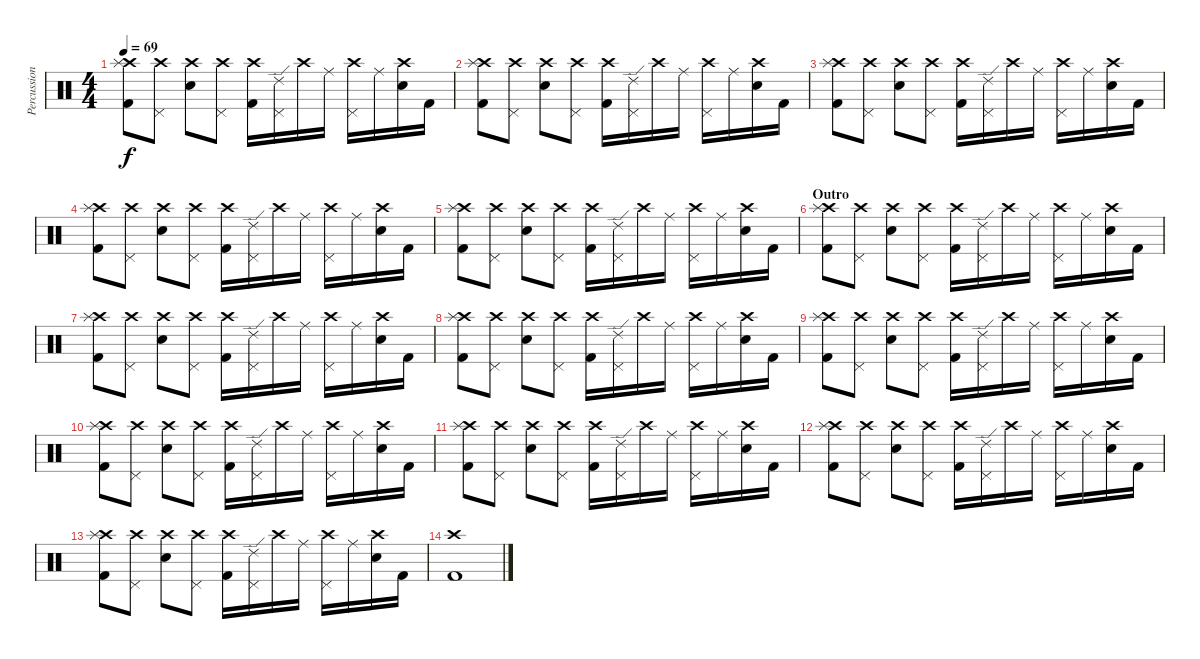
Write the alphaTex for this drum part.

\track ("Percussion" "Percussion") {instrument percussion}
\staff {score}
\articulation defaults
\ts (4 4)
\tempo 69
\clef neutral
\ks c
("Crash high (hit)" "Splash (hit)" "Kick (hit) 2").8{dy f} ("Crash high (hit)" "Pedal Hi-Hat (hit)").8 ("Crash high (hit)" "Electric Snare (hit)").8 ("Crash high (hit)" "Pedal Hi-Hat (hit)").8 ("Crash high (hit)" "Kick (hit) 2").16 ("Ride (edge) 2" "Pedal Hi-Hat (hit)").16 "Crash high (hit)".16 "Ride (middle)".16 ("Crash high (hit)" "Pedal Hi-Hat (hit)").16 "Ride (middle)".16 ("Crash high (hit)" "Electric Snare (hit)").16 "Kick (hit) 2".16 |
("Crash high (hit)" "Splash (hit)" "Kick (hit) 2").8 ("Crash high (hit)" "Pedal Hi-Hat (hit)").8 ("Crash high (hit)" "Electric Snare (hit)").8 ("Crash high (hit)" "Pedal Hi-Hat (hit)").8 ("Crash high (hit)" "Kick (hit) 2").16 ("Ride (edge) 2" "Pedal Hi-Hat (hit)").16 "Crash high (hit)".16 "Ride (middle)".16 ("Crash high (hit)" "Pedal Hi-Hat (hit)").16 "Ride (middle)".16 ("Crash high (hit)" "Electric Snare (hit)").16 "Kick (hit) 2".16 |
("Crash high (hit)" "Splash (hit)" "Kick (hit) 2").8 ("Crash high (hit)" "Pedal Hi-Hat (hit)").8 ("Crash high (hit)" "Electric Snare (hit)").8 ("Crash high (hit)" "Pedal Hi-Hat (hit)").8 ("Crash high (hit)" "Kick (hit) 2").16 ("Ride (edge) 2" "Pedal Hi-Hat (hit)").16 "Crash high (hit)".16 "Ride (middle)".16 ("Crash high (hit)" "Pedal Hi-Hat (hit)").16 "Ride (middle)".16 ("Crash high (hit)" "Electric Snare (hit)").16 "Kick (hit) 2".16 |
("Crash high (hit)" "Splash (hit)" "Kick (hit) 2").8 ("Crash high (hit)" "Pedal Hi-Hat (hit)").8 ("Crash high (hit)" "Electric Snare (hit)").8 ("Crash high (hit)" "Pedal Hi-Hat (hit)").8 ("Crash high (hit)" "Kick (hit) 2").16 ("Ride (edge) 2" "Pedal Hi-Hat (hit)").16 "Crash high (hit)".16 "Ride (middle)".16 ("Crash high (hit)" "Pedal Hi-Hat (hit)").16 "Ride (middle)".16 ("Crash high (hit)" "Electric Snare (hit)").16 "Kick (hit) 2".16 |
("Crash high (hit)" "Splash (hit)" "Kick (hit) 2").8 ("Crash high (hit)" "Pedal Hi-Hat (hit)").8 ("Crash high (hit)" "Electric Snare (hit)").8 ("Crash high (hit)" "Pedal Hi-Hat (hit)").8 ("Crash high (hit)" "Kick (hit) 2").16 ("Ride (edge) 2" "Pedal Hi-Hat (hit)").16 "Crash high (hit)".16 "Ride (middle)".16 ("Crash high (hit)" "Pedal Hi-Hat (hit)").16 "Ride (middle)".16 ("Crash high (hit)" "Electric Snare (hit)").16 "Kick (hit) 2".16 |
\section ("" "Outro")
("Crash high (hit)" "Splash (hit)" "Kick (hit) 2").8 ("Crash high (hit)" "Pedal Hi-Hat (hit)").8 ("Crash high (hit)" "Electric Snare (hit)").8 ("Crash high (hit)" "Pedal Hi-Hat (hit)").8 ("Crash high (hit)" "Kick (hit) 2").16 ("Ride (edge) 2" "Pedal Hi-Hat (hit)").16 "Crash high (hit)".16 "Ride (middle)".16 ("Crash high (hit)" "Pedal Hi-Hat (hit)").16 "Ride (middle)".16 ("Crash high (hit)" "Electric Snare (hit)").16 "Kick (hit) 2".16 |
("Crash high (hit)" "Splash (hit)" "Kick (hit) 2").8 ("Crash high (hit)" "Pedal Hi-Hat (hit)").8 ("Crash high (hit)" "Electric Snare (hit)").8 ("Crash high (hit)" "Pedal Hi-Hat (hit)").8 ("Crash high (hit)" "Kick (hit) 2").16 ("Ride (edge) 2" "Pedal Hi-Hat (hit)").16 "Crash high (hit)".16 "Ride (middle)".16 ("Crash high (hit)" "Pedal Hi-Hat (hit)").16 "Ride (middle)".16 ("Crash high (hit)" "Electric Snare (hit)").16 "Kick (hit) 2".16 |
("Crash high (hit)" "Splash (hit)" "Kick (hit) 2").8 ("Crash high (hit)" "Pedal Hi-Hat (hit)").8 ("Crash high (hit)" "Electric Snare (hit)").8 ("Crash high (hit)" "Pedal Hi-Hat (hit)").8 ("Crash high (hit)" "Kick (hit) 2").16 ("Ride (edge) 2" "Pedal Hi-Hat (hit)").16 "Crash high (hit)".16 "Ride (middle)".16 ("Crash high (hit)" "Pedal Hi-Hat (hit)").16 "Ride (middle)".16 ("Crash high (hit)" "Electric Snare (hit)").16 "Kick (hit) 2".16 |
("Crash high (hit)" "Splash (hit)" "Kick (hit) 2").8 ("Crash high (hit)" "Pedal Hi-Hat (hit)").8 ("Crash high (hit)" "Electric Snare (hit)").8 ("Crash high (hit)" "Pedal Hi-Hat (hit)").8 ("Crash high (hit)" "Kick (hit) 2").16 ("Ride (edge) 2" "Pedal Hi-Hat (hit)").16 "Crash high (hit)".16 "Ride (middle)".16 ("Crash high (hit)" "Pedal Hi-Hat (hit)").16 "Ride (middle)".16 ("Crash high (hit)" "Electric Snare (hit)").16 "Kick (hit) 2".16 |
("Crash high (hit)" "Splash (hit)" "Kick (hit) 2").8 ("Crash high (hit)" "Pedal Hi-Hat (hit)").8 ("Crash high (hit)" "Electric Snare (hit)").8 ("Crash high (hit)" "Pedal Hi-Hat (hit)").8 ("Crash high (hit)" "Kick (hit) 2").16 ("Ride (edge) 2" "Pedal Hi-Hat (hit)").16 "Crash high (hit)".16 "Ride (middle)".16 ("Crash high (hit)" "Pedal Hi-Hat (hit)").16 "Ride (middle)".16 ("Crash high (hit)" "Electric Snare (hit)").16 "Kick (hit) 2".16 |
("Crash high (hit)" "Splash (hit)" "Kick (hit) 2").8 ("Crash high (hit)" "Pedal Hi-Hat (hit)").8 ("Crash high (hit)" "Electric Snare (hit)").8 ("Crash high (hit)" "Pedal Hi-Hat (hit)").8 ("Crash high (hit)" "Kick (hit) 2").16 ("Ride (edge) 2" "Pedal Hi-Hat (hit)").16 "Crash high (hit)".16 "Ride (middle)".16 ("Crash high (hit)" "Pedal Hi-Hat (hit)").16 "Ride (middle)".16 ("Crash high (hit)" "Electric Snare (hit)").16 "Kick (hit) 2".16 |
("Crash high (hit)" "Splash (hit)" "Kick (hit) 2").8 ("Crash high (hit)" "Pedal Hi-Hat (hit)").8 ("Crash high (hit)" "Electric Snare (hit)").8 ("Crash high (hit)" "Pedal Hi-Hat (hit)").8 ("Crash high (hit)" "Kick (hit) 2").16 ("Ride (edge) 2" "Pedal Hi-Hat (hit)").16 "Crash high (hit)".16 "Ride (middle)".16 ("Crash high (hit)" "Pedal Hi-Hat (hit)").16 "Ride (middle)".16 ("Crash high (hit)" "Electric Snare (hit)").16 "Kick (hit) 2".16 |
("Crash high (hit)" "Splash (hit)" "Kick (hit) 2").8 ("Crash high (hit)" "Pedal Hi-Hat (hit)").8 ("Crash high (hit)" "Electric Snare (hit)").8 ("Crash high (hit)" "Pedal Hi-Hat (hit)").8 ("Crash high (hit)" "Kick (hit) 2").16 ("Ride (edge) 2" "Pedal Hi-Hat (hit)").16 "Crash high (hit)".16 "Ride (middle)".16 ("Crash high (hit)" "Pedal Hi-Hat (hit)").16 "Ride (middle)".16 ("Crash high (hit)" "Electric Snare (hit)").16 "Kick (hit) 2".16 |
("Crash high (hit)" "Kick (hit) 2").1
